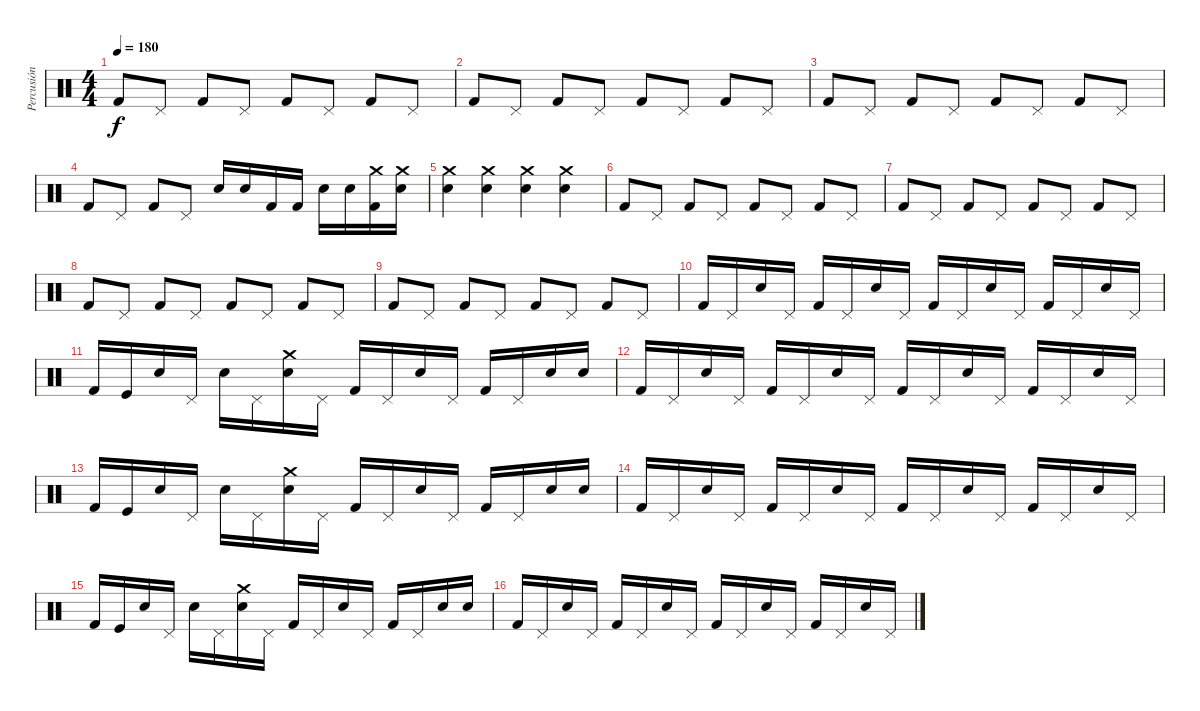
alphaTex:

\track ("Percusión" "Percusión") {instrument percussion}
\staff {score}
\articulation defaults
\ts (4 4)
\tempo 180
\clef neutral
\ks c "Kick (hit) 2".8{dy f} "Pedal Hi-Hat (hit)".8 "Kick (hit) 2".8 "Pedal Hi-Hat (hit)".8 "Kick (hit) 2".8 "Pedal Hi-Hat (hit)".8 "Kick (hit) 2".8 "Pedal Hi-Hat (hit)".8
|
"Kick (hit) 2".8 "Pedal Hi-Hat (hit)".8 "Kick (hit) 2".8 "Pedal Hi-Hat (hit)".8 "Kick (hit) 2".8 "Pedal Hi-Hat (hit)".8 "Kick (hit) 2".8 "Pedal Hi-Hat (hit)".8 |
"Kick (hit) 2".8 "Pedal Hi-Hat (hit)".8 "Kick (hit) 2".8 "Pedal Hi-Hat (hit)".8 "Kick (hit) 2".8 "Pedal Hi-Hat (hit)".8 "Kick (hit) 2".8 "Pedal Hi-Hat (hit)".8 |
"Kick (hit) 2".8 "Pedal Hi-Hat (hit)".8 "Kick (hit) 2".8 "Pedal Hi-Hat (hit)".8 "Snare (hit) 2".16 "Snare (hit) 2".16 "Kick (hit) 2".16 "Kick (hit) 2".16 "Snare (hit) 2".16 "Snare (hit) 2".16 ("Kick (hit) 2" "Crash medium (hit)").16 ("Snare (hit) 2" "Crash medium (hit)").16 |
("Snare (hit) 2" "Crash medium (hit)").4 ("Snare (hit) 2" "Crash medium (hit)").4 ("Snare (hit) 2" "Crash medium (hit)").4 ("Snare (hit) 2" "Crash medium (hit)").4 |
"Kick (hit) 2".8 "Pedal Hi-Hat (hit)".8 "Kick (hit) 2".8 "Pedal Hi-Hat (hit)".8 "Kick (hit) 2".8 "Pedal Hi-Hat (hit)".8 "Kick (hit) 2".8 "Pedal Hi-Hat (hit)".8 |
"Kick (hit) 2".8 "Pedal Hi-Hat (hit)".8 "Kick (hit) 2".8 "Pedal Hi-Hat (hit)".8 "Kick (hit) 2".8 "Pedal Hi-Hat (hit)".8 "Kick (hit) 2".8 "Pedal Hi-Hat (hit)".8 |
"Kick (hit) 2".8 "Pedal Hi-Hat (hit)".8 "Kick (hit) 2".8 "Pedal Hi-Hat (hit)".8 "Kick (hit) 2".8 "Pedal Hi-Hat (hit)".8 "Kick (hit) 2".8 "Pedal Hi-Hat (hit)".8 |
"Kick (hit) 2".8 "Pedal Hi-Hat (hit)".8 "Kick (hit) 2".8 "Pedal Hi-Hat (hit)".8 "Kick (hit) 2".8 "Pedal Hi-Hat (hit)".8 "Kick (hit) 2".8 "Pedal Hi-Hat (hit)".8 |
"Kick (hit) 2".16 "Pedal Hi-Hat (hit)".16 "Snare (hit) 2".16 "Pedal Hi-Hat (hit)".16 "Kick (hit) 2".16 "Pedal Hi-Hat (hit)".16 "Snare (hit) 2".16 "Pedal Hi-Hat (hit)".16 "Kick (hit) 2".16 "Pedal Hi-Hat (hit)".16 "Snare (hit) 2".16 "Pedal Hi-Hat (hit)".16 "Kick (hit) 2".16 "Pedal Hi-Hat (hit)".16 "Snare (hit) 2".16 "Pedal Hi-Hat (hit)".16 |
"Kick (hit) 2".16 "Kick (hit)".16 "Snare (hit) 2".16 "Pedal Hi-Hat (hit)".16 "Snare (hit) 2".16 "Pedal Hi-Hat (hit)".16 ("Snare (hit) 2" "Crash medium (hit)").16 "Pedal Hi-Hat (hit)".16 "Kick (hit) 2".16 "Pedal Hi-Hat (hit)".16 "Snare (hit) 2".16 "Pedal Hi-Hat (hit)".16 "Kick (hit) 2".16 "Pedal Hi-Hat (hit)".16 "Snare (hit) 2".16 "Snare (hit) 2".16 |
"Kick (hit) 2".16 "Pedal Hi-Hat (hit)".16 "Snare (hit) 2".16 "Pedal Hi-Hat (hit)".16 "Kick (hit) 2".16 "Pedal Hi-Hat (hit)".16 "Snare (hit) 2".16 "Pedal Hi-Hat (hit)".16 "Kick (hit) 2".16 "Pedal Hi-Hat (hit)".16 "Snare (hit) 2".16 "Pedal Hi-Hat (hit)".16 "Kick (hit) 2".16 "Pedal Hi-Hat (hit)".16 "Snare (hit) 2".16 "Pedal Hi-Hat (hit)".16 |
"Kick (hit) 2".16 "Kick (hit)".16 "Snare (hit) 2".16 "Pedal Hi-Hat (hit)".16 "Snare (hit) 2".16 "Pedal Hi-Hat (hit)".16 ("Snare (hit) 2" "Crash medium (hit)").16 "Pedal Hi-Hat (hit)".16 "Kick (hit) 2".16 "Pedal Hi-Hat (hit)".16 "Snare (hit) 2".16 "Pedal Hi-Hat (hit)".16 "Kick (hit) 2".16 "Pedal Hi-Hat (hit)".16 "Snare (hit) 2".16 "Snare (hit) 2".16 |
"Kick (hit) 2".16 "Pedal Hi-Hat (hit)".16 "Snare (hit) 2".16 "Pedal Hi-Hat (hit)".16 "Kick (hit) 2".16 "Pedal Hi-Hat (hit)".16 "Snare (hit) 2".16 "Pedal Hi-Hat (hit)".16 "Kick (hit) 2".16 "Pedal Hi-Hat (hit)".16 "Snare (hit) 2".16 "Pedal Hi-Hat (hit)".16 "Kick (hit) 2".16 "Pedal Hi-Hat (hit)".16 "Snare (hit) 2".16 "Pedal Hi-Hat (hit)".16 |
"Kick (hit) 2".16 "Kick (hit)".16 "Snare (hit) 2".16 "Pedal Hi-Hat (hit)".16 "Snare (hit) 2".16 "Pedal Hi-Hat (hit)".16 ("Snare (hit) 2" "Crash medium (hit)").16 "Pedal Hi-Hat (hit)".16 "Kick (hit) 2".16 "Pedal Hi-Hat (hit)".16 "Snare (hit) 2".16 "Pedal Hi-Hat (hit)".16 "Kick (hit) 2".16 "Pedal Hi-Hat (hit)".16 "Snare (hit) 2".16 "Snare (hit) 2".16 |
"Kick (hit) 2".16 "Pedal Hi-Hat (hit)".16 "Snare (hit) 2".16 "Pedal Hi-Hat (hit)".16 "Kick (hit) 2".16 "Pedal Hi-Hat (hit)".16 "Snare (hit) 2".16 "Pedal Hi-Hat (hit)".16 "Kick (hit) 2".16 "Pedal Hi-Hat (hit)".16 "Snare (hit) 2".16 "Pedal Hi-Hat (hit)".16 "Kick (hit) 2".16 "Pedal Hi-Hat (hit)".16 "Snare (hit) 2".16 "Pedal Hi-Hat (hit)".16
